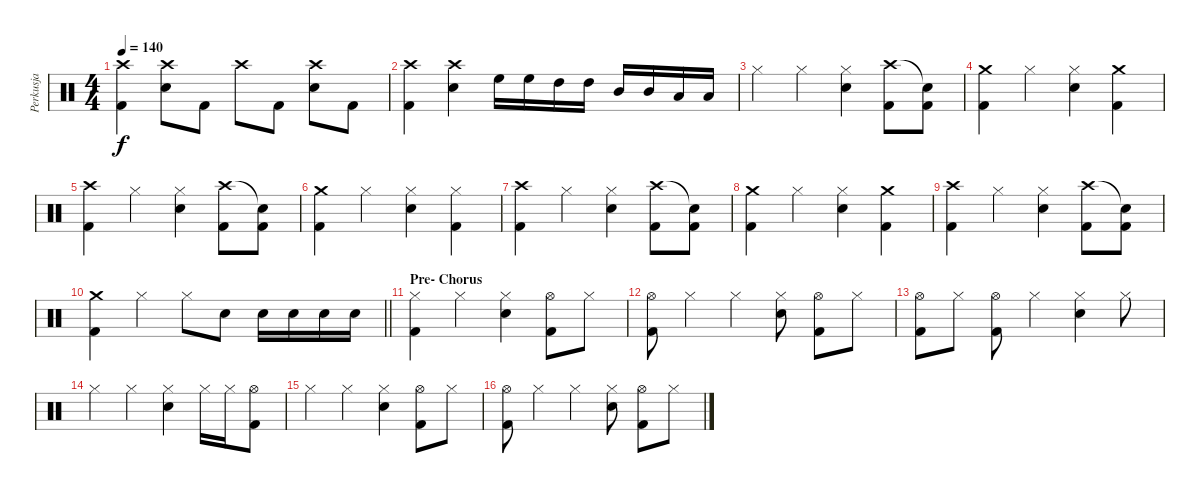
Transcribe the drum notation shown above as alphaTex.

\track ("Perkusja" "Perkusja") {instrument percussion}
\staff {score}
\articulation defaults
\ts (4 4)
\tempo 140
\clef neutral
\ks c
("Crash high (hit)" "Kick (hit) 2").4{dy f} ("Crash high (hit)" "Snare (hit) 2").8 "Kick (hit) 2".8 "Crash high (hit)".8 "Kick (hit) 2".8 ("Crash high (hit)" "Snare (hit) 2").8 "Kick (hit) 2".8 |
("Crash high (hit)" "Kick (hit) 2").4 ("Crash high (hit)" "Snare (hit) 2").4 "High Floor Tom (hit)".16 "High Floor Tom (hit)".16 "High Tom (hit)".16 "High Tom (hit)".16 "Mid Tom (hit)".16 "Mid Tom (hit)".16 "Low Tom (hit)".16 "Low Tom (hit)".16 |
"Hi-Hat (closed)".4 "Hi-Hat (closed)".4 ("Hi-Hat (closed)" "Snare (hit) 2").4 ("Crash high (hit)" "Kick (hit) 2").8 ("Snare (hit)"{t} "Kick (hit) 2").8 |
("Crash medium (hit)" "Kick (hit) 2").4 "Hi-Hat (closed)".4 ("Hi-Hat (closed)" "Snare (hit) 2").4 ("Crash medium (hit)" "Kick (hit) 2").4 |
("Crash high (hit)" "Kick (hit) 2").4 "Hi-Hat (closed)".4 ("Hi-Hat (closed)" "Snare (hit) 2").4 ("Crash high (hit)" "Kick (hit) 2").8 ("Snare (hit)"{t} "Kick (hit) 2").8 |
("Crash medium (hit)" "Kick (hit) 2").4 "Hi-Hat (closed)".4 ("Hi-Hat (closed)" "Snare (hit) 2").4 ("Hi-Hat (closed)" "Kick (hit) 2").4 |
("Crash high (hit)" "Kick (hit) 2").4 "Hi-Hat (closed)".4 ("Hi-Hat (closed)" "Snare (hit) 2").4 ("Crash high (hit)" "Kick (hit) 2").8 ("Snare (hit)"{t} "Kick (hit) 2").8 |
("Crash medium (hit)" "Kick (hit) 2").4 "Hi-Hat (closed)".4 ("Hi-Hat (closed)" "Snare (hit) 2").4 ("Crash medium (hit)" "Kick (hit) 2").4 |
("Crash high (hit)" "Kick (hit) 2").4 "Hi-Hat (closed)".4 ("Hi-Hat (closed)" "Snare (hit) 2").4 ("Crash high (hit)" "Kick (hit) 2").8 ("Snare (hit)"{t} "Kick (hit) 2").8 |
\barLineRight lightlight
("Crash medium (hit)" "Kick (hit) 2").4 "Hi-Hat (closed)".4 "Hi-Hat (closed)".8 "Snare (hit) 2".8 "Snare (hit) 2".16 "Snare (hit) 2".16 "Snare (hit) 2".16 "Snare (hit) 2".16 |
\section ("" "Pre- Chorus")
("Hi-Hat (closed)" "Kick (hit) 2").4 "Hi-Hat (closed)".4 ("Hi-Hat (closed)" "Snare (hit) 2").4 ("Hi-Hat (open)" "Kick (hit) 2").8 "Hi-Hat (closed)".8 |
("Hi-Hat (open)" "Kick (hit) 2").8 "Hi-Hat (closed)".4 "Hi-Hat (closed)".4 ("Hi-Hat (closed)" "Snare (hit) 2").8 ("Hi-Hat (open)" "Kick (hit) 2").8 "Hi-Hat (closed)".8 |
("Hi-Hat (open)" "Kick (hit) 2").8 "Hi-Hat (closed)".8 ("Hi-Hat (open)" "Kick (hit) 2").8 "Hi-Hat (closed)".4 ("Hi-Hat (closed)" "Snare (hit) 2").4 "Hi-Hat (closed)".8 |
"Hi-Hat (closed)".4 "Hi-Hat (closed)".4 ("Hi-Hat (closed)" "Snare (hit) 2").4 "Hi-Hat (closed)".16 "Hi-Hat (closed)".16 ("Hi-Hat (open)" "Kick (hit) 2").8 |
"Hi-Hat (closed)".4 "Hi-Hat (closed)".4 ("Hi-Hat (closed)" "Snare (hit) 2").4 ("Hi-Hat (open)" "Kick (hit) 2").8 "Hi-Hat (closed)".8 |
("Hi-Hat (open)" "Kick (hit) 2").8 "Hi-Hat (closed)".4 "Hi-Hat (closed)".4 ("Hi-Hat (closed)" "Snare (hit) 2").8 ("Hi-Hat (open)" "Kick (hit) 2").8 "Hi-Hat (closed)".8
